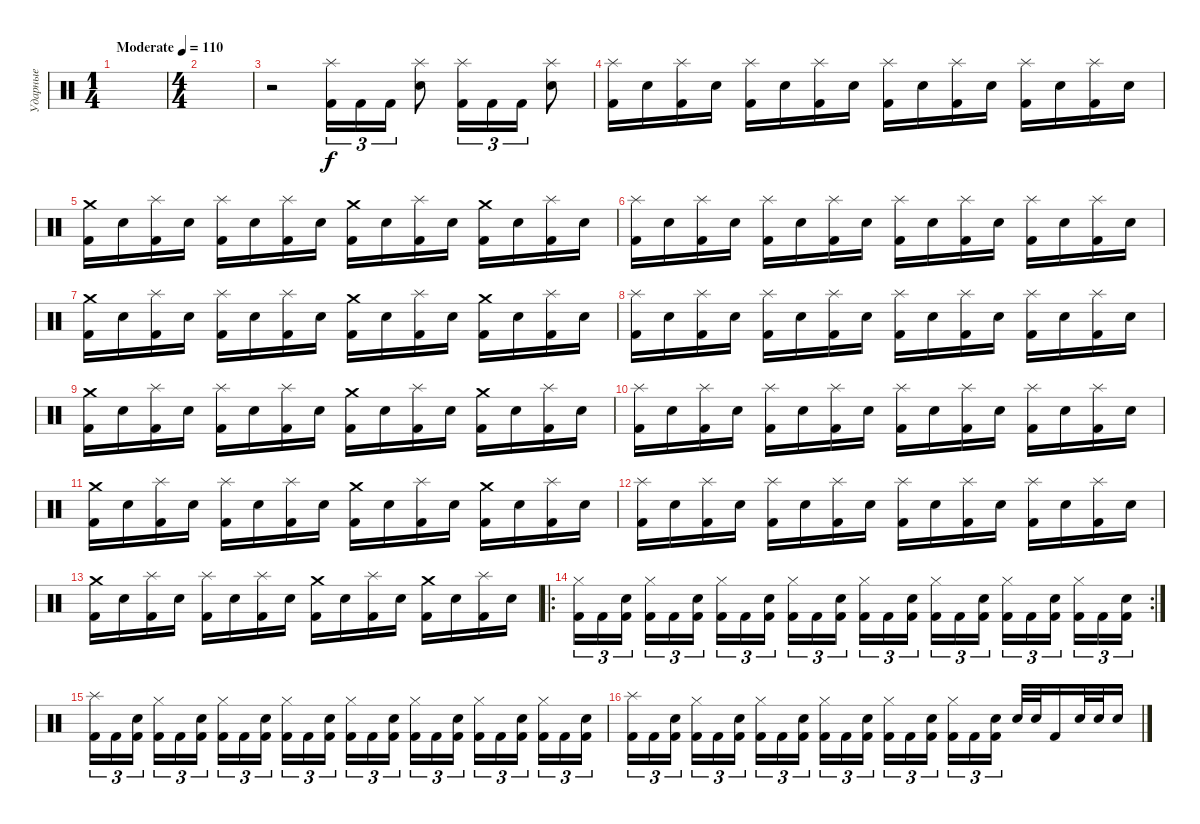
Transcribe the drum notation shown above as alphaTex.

\track ("Ударные" "Ударные") {instrument percussion}
\staff {score}
\articulation defaults
\ts (1 4)
\tempo (110 "Moderate")
\clef neutral
\ks c
|
\ts (4 4)
|
r.2 ("Splash (hit)" "Kick (hit) 2").16{tu (3 2)} "Kick (hit) 2".16{tu (3 2)} "Kick (hit) 2".16{tu (3 2)} ("Splash (hit)" "Electric Snare (hit)").8 ("Splash (hit)" "Kick (hit) 2").16{tu (3 2)} "Kick (hit) 2".16{tu (3 2)} "Kick (hit) 2".16{tu (3 2)} ("Splash (hit)" "Electric Snare (hit)").8 |
("Splash (hit)" "Kick (hit) 2").16 "Electric Snare (hit)".16 ("Splash (hit)" "Kick (hit) 2").16 "Electric Snare (hit)".16 ("Splash (hit)" "Kick (hit) 2").16 "Electric Snare (hit)".16 ("Splash (hit)" "Kick (hit) 2").16 "Electric Snare (hit)".16 ("Splash (hit)" "Kick (hit) 2").16 "Electric Snare (hit)".16 ("Splash (hit)" "Kick (hit) 2").16 "Electric Snare (hit)".16 ("Splash (hit)" "Kick (hit) 2").16 "Electric Snare (hit)".16 ("Splash (hit)" "Kick (hit) 2").16 "Electric Snare (hit)".16 |
("Crash medium (hit)" "Kick (hit) 2").16 "Electric Snare (hit)".16 ("Splash (hit)" "Kick (hit) 2").16 "Electric Snare (hit)".16 ("Splash (hit)" "Kick (hit) 2").16 "Electric Snare (hit)".16 ("Splash (hit)" "Kick (hit) 2").16 "Electric Snare (hit)".16 ("Crash medium (hit)" "Kick (hit) 2").16 "Electric Snare (hit)".16 ("Splash (hit)" "Kick (hit) 2").16 "Electric Snare (hit)".16 ("Crash medium (hit)" "Kick (hit) 2").16 "Electric Snare (hit)".16 ("Splash (hit)" "Kick (hit) 2").16 "Electric Snare (hit)".16 |
("Splash (hit)" "Kick (hit) 2").16 "Electric Snare (hit)".16 ("Splash (hit)" "Kick (hit) 2").16 "Electric Snare (hit)".16 ("Splash (hit)" "Kick (hit) 2").16 "Electric Snare (hit)".16 ("Splash (hit)" "Kick (hit) 2").16 "Electric Snare (hit)".16 ("Splash (hit)" "Kick (hit) 2").16 "Electric Snare (hit)".16 ("Splash (hit)" "Kick (hit) 2").16 "Electric Snare (hit)".16 ("Splash (hit)" "Kick (hit) 2").16 "Electric Snare (hit)".16 ("Splash (hit)" "Kick (hit) 2").16 "Electric Snare (hit)".16 |
("Crash medium (hit)" "Kick (hit) 2").16 "Electric Snare (hit)".16 ("Splash (hit)" "Kick (hit) 2").16 "Electric Snare (hit)".16 ("Splash (hit)" "Kick (hit) 2").16 "Electric Snare (hit)".16 ("Splash (hit)" "Kick (hit) 2").16 "Electric Snare (hit)".16 ("Crash medium (hit)" "Kick (hit) 2").16 "Electric Snare (hit)".16 ("Splash (hit)" "Kick (hit) 2").16 "Electric Snare (hit)".16 ("Crash medium (hit)" "Kick (hit) 2").16 "Electric Snare (hit)".16 ("Splash (hit)" "Kick (hit) 2").16 "Electric Snare (hit)".16 |
("Splash (hit)" "Kick (hit) 2").16 "Electric Snare (hit)".16 ("Splash (hit)" "Kick (hit) 2").16 "Electric Snare (hit)".16 ("Splash (hit)" "Kick (hit) 2").16 "Electric Snare (hit)".16 ("Splash (hit)" "Kick (hit) 2").16 "Electric Snare (hit)".16 ("Splash (hit)" "Kick (hit) 2").16 "Electric Snare (hit)".16 ("Splash (hit)" "Kick (hit) 2").16 "Electric Snare (hit)".16 ("Splash (hit)" "Kick (hit) 2").16 "Electric Snare (hit)".16 ("Splash (hit)" "Kick (hit) 2").16 "Electric Snare (hit)".16 |
("Crash medium (hit)" "Kick (hit) 2").16 "Electric Snare (hit)".16 ("Splash (hit)" "Kick (hit) 2").16 "Electric Snare (hit)".16 ("Splash (hit)" "Kick (hit) 2").16 "Electric Snare (hit)".16 ("Splash (hit)" "Kick (hit) 2").16 "Electric Snare (hit)".16 ("Crash medium (hit)" "Kick (hit) 2").16 "Electric Snare (hit)".16 ("Splash (hit)" "Kick (hit) 2").16 "Electric Snare (hit)".16 ("Crash medium (hit)" "Kick (hit) 2").16 "Electric Snare (hit)".16 ("Splash (hit)" "Kick (hit) 2").16 "Electric Snare (hit)".16 |
("Splash (hit)" "Kick (hit) 2").16 "Electric Snare (hit)".16 ("Splash (hit)" "Kick (hit) 2").16 "Electric Snare (hit)".16 ("Splash (hit)" "Kick (hit) 2").16 "Electric Snare (hit)".16 ("Splash (hit)" "Kick (hit) 2").16 "Electric Snare (hit)".16 ("Splash (hit)" "Kick (hit) 2").16 "Electric Snare (hit)".16 ("Splash (hit)" "Kick (hit) 2").16 "Electric Snare (hit)".16 ("Splash (hit)" "Kick (hit) 2").16 "Electric Snare (hit)".16 ("Splash (hit)" "Kick (hit) 2").16 "Electric Snare (hit)".16 |
("Crash medium (hit)" "Kick (hit) 2").16 "Electric Snare (hit)".16 ("Splash (hit)" "Kick (hit) 2").16 "Electric Snare (hit)".16 ("Splash (hit)" "Kick (hit) 2").16 "Electric Snare (hit)".16 ("Splash (hit)" "Kick (hit) 2").16 "Electric Snare (hit)".16 ("Crash medium (hit)" "Kick (hit) 2").16 "Electric Snare (hit)".16 ("Splash (hit)" "Kick (hit) 2").16 "Electric Snare (hit)".16 ("Crash medium (hit)" "Kick (hit) 2").16 "Electric Snare (hit)".16 ("Splash (hit)" "Kick (hit) 2").16 "Electric Snare (hit)".16 |
("Splash (hit)" "Kick (hit) 2").16 "Electric Snare (hit)".16 ("Splash (hit)" "Kick (hit) 2").16 "Electric Snare (hit)".16 ("Splash (hit)" "Kick (hit) 2").16 "Electric Snare (hit)".16 ("Splash (hit)" "Kick (hit) 2").16 "Electric Snare (hit)".16 ("Splash (hit)" "Kick (hit) 2").16 "Electric Snare (hit)".16 ("Splash (hit)" "Kick (hit) 2").16 "Electric Snare (hit)".16 ("Splash (hit)" "Kick (hit) 2").16 "Electric Snare (hit)".16 ("Splash (hit)" "Kick (hit) 2").16 "Electric Snare (hit)".16 |
("Crash medium (hit)" "Kick (hit) 2").16 "Electric Snare (hit)".16 ("Splash (hit)" "Kick (hit) 2").16 "Electric Snare (hit)".16 ("Splash (hit)" "Kick (hit) 2").16 "Electric Snare (hit)".16 ("Splash (hit)" "Kick (hit) 2").16 "Electric Snare (hit)".16 ("Crash medium (hit)" "Kick (hit) 2").16 "Electric Snare (hit)".16 ("Splash (hit)" "Kick (hit) 2").16 "Electric Snare (hit)".16 ("Crash medium (hit)" "Kick (hit) 2").16 "Electric Snare (hit)".16 ("Splash (hit)" "Kick (hit) 2").16 "Electric Snare (hit)".16 |
\ro
\rc 2
("Hi-Hat (closed)" "Kick (hit) 2").16{tu (3 2)} "Kick (hit) 2".16{tu (3 2)} ("Electric Snare (hit)" "Kick (hit) 2").16{tu (3 2) beam splitsecondary} ("Hi-Hat (closed)" "Kick (hit) 2").16{tu (3 2)} "Kick (hit) 2".16{tu (3 2)} ("Electric Snare (hit)" "Kick (hit) 2").16{tu (3 2)} ("Hi-Hat (closed)" "Kick (hit) 2").16{tu (3 2)} "Kick (hit) 2".16{tu (3 2)} ("Electric Snare (hit)" "Kick (hit) 2").16{tu (3 2) beam splitsecondary} ("Hi-Hat (closed)" "Kick (hit) 2").16{tu (3 2)} "Kick (hit) 2".16{tu (3 2)} ("Electric Snare (hit)" "Kick (hit) 2").16{tu (3 2)} ("Hi-Hat (closed)" "Kick (hit) 2").16{tu (3 2)} "Kick (hit) 2".16{tu (3 2)} ("Electric Snare (hit)" "Kick (hit) 2").16{tu (3 2) beam splitsecondary} ("Hi-Hat (closed)" "Kick (hit) 2").16{tu (3 2)} "Kick (hit) 2".16{tu (3 2)} ("Electric Snare (hit)" "Kick (hit) 2").16{tu (3 2)} ("Hi-Hat (closed)" "Kick (hit) 2").16{tu (3 2)} "Kick (hit) 2".16{tu (3 2)} ("Electric Snare (hit)" "Kick (hit) 2").16{tu (3 2) beam splitsecondary} ("Hi-Hat (closed)" "Kick (hit) 2").16{tu (3 2)} "Kick (hit) 2".16{tu (3 2)} ("Electric Snare (hit)" "Kick (hit) 2").16{tu (3 2)} |
("Splash (hit)" "Kick (hit) 2").16{tu (3 2)} "Kick (hit) 2".16{tu (3 2)} ("Electric Snare (hit)" "Kick (hit) 2").16{tu (3 2) beam splitsecondary} ("Hi-Hat (closed)" "Kick (hit) 2").16{tu (3 2)} "Kick (hit) 2".16{tu (3 2)} ("Electric Snare (hit)" "Kick (hit) 2").16{tu (3 2)} ("Hi-Hat (closed)" "Kick (hit) 2").16{tu (3 2)} "Kick (hit) 2".16{tu (3 2)} ("Electric Snare (hit)" "Kick (hit) 2").16{tu (3 2) beam splitsecondary} ("Hi-Hat (closed)" "Kick (hit) 2").16{tu (3 2)} "Kick (hit) 2".16{tu (3 2)} ("Electric Snare (hit)" "Kick (hit) 2").16{tu (3 2)} ("Hi-Hat (closed)" "Kick (hit) 2").16{tu (3 2)} "Kick (hit) 2".16{tu (3 2)} ("Electric Snare (hit)" "Kick (hit) 2").16{tu (3 2) beam splitsecondary} ("Hi-Hat (closed)" "Kick (hit) 2").16{tu (3 2)} "Kick (hit) 2".16{tu (3 2)} ("Electric Snare (hit)" "Kick (hit) 2").16{tu (3 2)} ("Hi-Hat (closed)" "Kick (hit) 2").16{tu (3 2)} "Kick (hit) 2".16{tu (3 2)} ("Electric Snare (hit)" "Kick (hit) 2").16{tu (3 2) beam splitsecondary} ("Hi-Hat (closed)" "Kick (hit) 2").16{tu (3 2)} "Kick (hit) 2".16{tu (3 2)} ("Electric Snare (hit)" "Kick (hit) 2").16{tu (3 2)} |
("Splash (hit)" "Kick (hit) 2").16{tu (3 2)} "Kick (hit) 2".16{tu (3 2)} ("Electric Snare (hit)" "Kick (hit) 2").16{tu (3 2) beam splitsecondary} ("Hi-Hat (closed)" "Kick (hit) 2").16{tu (3 2)} "Kick (hit) 2".16{tu (3 2)} ("Electric Snare (hit)" "Kick (hit) 2").16{tu (3 2)} ("Hi-Hat (closed)" "Kick (hit) 2").16{tu (3 2)} "Kick (hit) 2".16{tu (3 2)} ("Electric Snare (hit)" "Kick (hit) 2").16{tu (3 2) beam splitsecondary} ("Hi-Hat (closed)" "Kick (hit) 2").16{tu (3 2)} "Kick (hit) 2".16{tu (3 2)} ("Electric Snare (hit)" "Kick (hit) 2").16{tu (3 2)} ("Hi-Hat (closed)" "Kick (hit) 2").16{tu (3 2)} "Kick (hit) 2".16{tu (3 2)} ("Electric Snare (hit)" "Kick (hit) 2").16{tu (3 2) beam splitsecondary} ("Hi-Hat (closed)" "Kick (hit) 2").16{tu (3 2)} "Kick (hit) 2".16{tu (3 2)} ("Electric Snare (hit)" "Kick (hit) 2").16{tu (3 2)} "Electric Snare (hit)".32 "Electric Snare (hit)".32 "Kick (hit) 2".16 "Snare (hit) 2".32 "Snare (hit) 2".32 "Electric Snare (hit)".16
